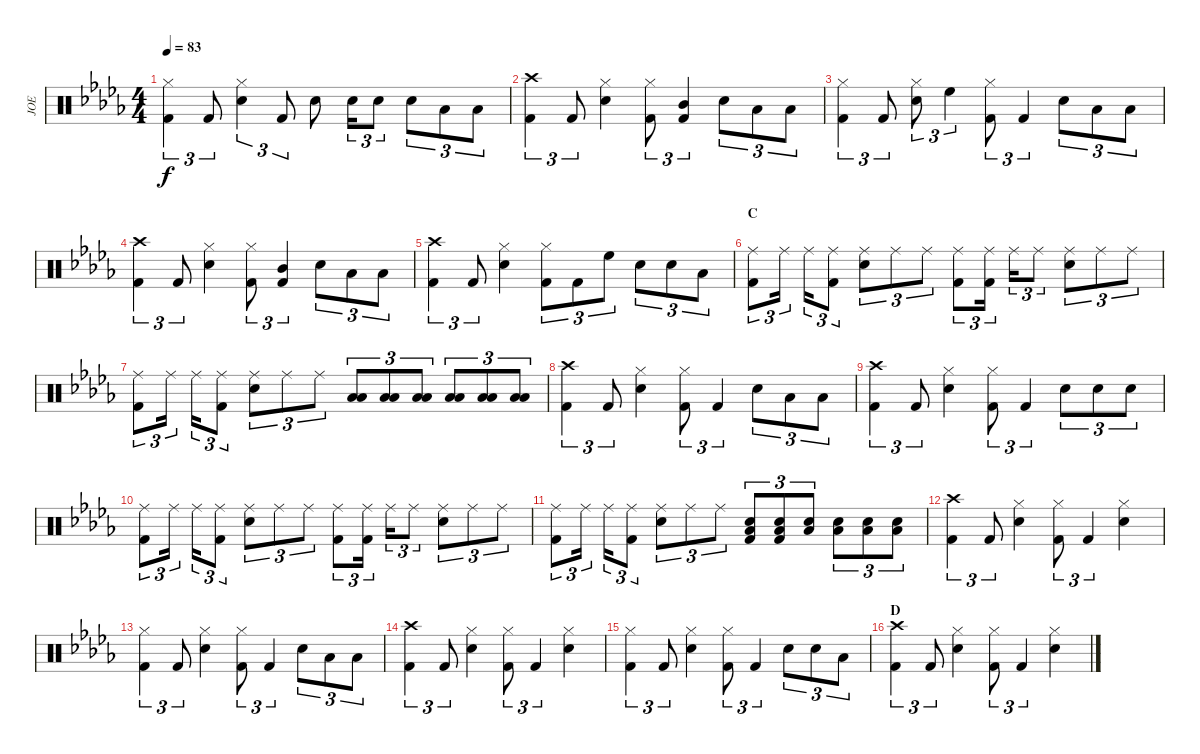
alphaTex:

\track ("JOE" "JOE") {instrument percussion}
\staff {score}
\articulation defaults
\ts (4 4)
\tempo 83
\clef neutral
\ks db
("Hi-Hat (closed)" "Kick (hit) 2").4{tu (3 2) dy f} "Kick (hit) 2".8{tu (3 2)} ("Hi-Hat (closed)" "Snare (hit) 2").4{tu (3 2)} "Kick (hit) 2".8{tu (3 2)} "Snare (hit) 2".8 "Snare (hit) 2".16{tu (3 2)} "Snare (hit) 2".8{tu (3 2)} "Snare (hit) 2".8{tu (3 2)} "Low Floor Tom (hit)".8{tu (3 2)} "Low Floor Tom (hit)".8{tu (3 2)} |
("Crash high (hit)" "Kick (hit) 2").4{tu (3 2)} "Kick (hit) 2".8{tu (3 2)} ("Hi-Hat (closed)" "Snare (hit) 2").4 ("Hi-Hat (closed)" "Kick (hit) 2").8{tu (3 2)} ("Mid Tom (hit)" "Kick (hit) 2").4{tu (3 2)} "Snare (hit) 2".8{tu (3 2)} "Low Floor Tom (hit)".8{tu (3 2)} "Low Floor Tom (hit)".8{tu (3 2)} |
("Hi-Hat (closed)" "Kick (hit) 2").4{tu (3 2)} "Kick (hit) 2".8{tu (3 2)} ("Hi-Hat (closed)" "Snare (hit) 2").8{tu (3 2)} "High Floor Tom (hit)".4{tu (3 2)} ("Hi-Hat (closed)" "Kick (hit) 2").8{tu (3 2)} "Kick (hit) 2".4{tu (3 2)} "Snare (hit) 2".8{tu (3 2)} "Low Floor Tom (hit)".8{tu (3 2)} "Low Floor Tom (hit)".8{tu (3 2)} |
("Crash high (hit)" "Kick (hit) 2").4{tu (3 2)} "Kick (hit) 2".8{tu (3 2)} ("Hi-Hat (closed)" "Snare (hit) 2").4 ("Hi-Hat (closed)" "Kick (hit) 2").8{tu (3 2)} ("Mid Tom (hit)" "Kick (hit) 2").4{tu (3 2)} "Snare (hit) 2".8{tu (3 2)} "Low Floor Tom (hit)".8{tu (3 2)} "Low Floor Tom (hit)".8{tu (3 2)} |
("Crash high (hit)" "Kick (hit) 2").4{tu (3 2)} "Kick (hit) 2".8{tu (3 2)} ("Hi-Hat (closed)" "Snare (hit) 2").4 ("Hi-Hat (closed)" "Kick (hit) 2").8{tu (3 2)} "Kick (hit) 2".8{tu (3 2)} "High Floor Tom (hit)".8{tu (3 2)} "Snare (hit) 2".8{tu (3 2)} "Snare (hit) 2".8{tu (3 2)} "Low Floor Tom (hit)".8{tu (3 2)} |
\section ("" "C")
("Ride (middle)" "Kick (hit) 2").8{tu (3 2)} "Ride (middle)".16{tu (3 2)} "Ride (middle)".16{tu (3 2)} ("Ride (middle)" "Kick (hit) 2").8{tu (3 2)} ("Ride (middle)" "Snare (hit) 2").8{tu (3 2)} "Ride (middle)".8{tu (3 2)} "Ride (middle)".8{tu (3 2)} ("Ride (middle)" "Kick (hit) 2").8{tu (3 2)} ("Ride (middle)" "Kick (hit) 2").16{tu (3 2)} "Ride (middle)".16{tu (3 2)} "Ride (middle)".8{tu (3 2)} ("Ride (middle)" "Snare (hit) 2").8{tu (3 2)} "Ride (middle)".8{tu (3 2)} "Ride (middle)".8{tu (3 2)} |
("Ride (middle)" "Kick (hit) 2").8{tu (3 2)} "Ride (middle)".16{tu (3 2)} "Ride (middle)".16{tu (3 2)} ("Ride (middle)" "Kick (hit) 2").8{tu (3 2)} ("Ride (middle)" "Snare (hit) 2").8{tu (3 2)} "Ride (middle)".8{tu (3 2)} "Ride (middle)".8{tu (3 2)} ("Low Tom (hit)" "Low Floor Tom (hit)").8{tu (3 2)} ("Low Tom (hit)" "Low Floor Tom (hit)").8{tu (3 2)} ("Low Tom (hit)" "Low Floor Tom (hit)").8{tu (3 2)} ("Low Tom (hit)" "Low Floor Tom (hit)").8{tu (3 2)} ("Low Tom (hit)" "Low Floor Tom (hit)").8{tu (3 2)} ("Low Tom (hit)" "Low Floor Tom (hit)").8{tu (3 2)} |
("Crash high (hit)" "Kick (hit) 2").4{tu (3 2)} "Kick (hit) 2".8{tu (3 2)} ("Hi-Hat (closed)" "Snare (hit) 2").4 ("Hi-Hat (closed)" "Kick (hit) 2").8{tu (3 2)} "Kick (hit) 2".4{tu (3 2)} "Snare (hit) 2".8{tu (3 2)} "Low Floor Tom (hit)".8{tu (3 2)} "Low Floor Tom (hit)".8{tu (3 2)} |
("Crash high (hit)" "Kick (hit) 2").4{tu (3 2)} "Kick (hit) 2".8{tu (3 2)} ("Hi-Hat (closed)" "Snare (hit) 2").4 ("Hi-Hat (closed)" "Kick (hit) 2").8{tu (3 2)} "Kick (hit) 2".4{tu (3 2)} "Snare (hit) 2".8{tu (3 2)} "Snare (hit) 2".8{tu (3 2)} "Snare (hit) 2".8{tu (3 2)} |
("Ride (middle)" "Kick (hit) 2").8{tu (3 2)} "Ride (middle)".16{tu (3 2)} "Ride (middle)".16{tu (3 2)} ("Ride (middle)" "Kick (hit) 2").8{tu (3 2)} ("Ride (middle)" "Snare (hit) 2").8{tu (3 2)} "Ride (middle)".8{tu (3 2)} "Ride (middle)".8{tu (3 2)} ("Ride (middle)" "Kick (hit) 2").8{tu (3 2)} ("Ride (middle)" "Kick (hit) 2").16{tu (3 2)} "Ride (middle)".16{tu (3 2)} "Ride (middle)".8{tu (3 2)} ("Ride (middle)" "Snare (hit) 2").8{tu (3 2)} "Ride (middle)".8{tu (3 2)} "Ride (middle)".8{tu (3 2)} |
("Ride (middle)" "Kick (hit) 2").8{tu (3 2)} "Ride (middle)".16{tu (3 2)} "Ride (middle)".16{tu (3 2)} ("Ride (middle)" "Kick (hit) 2").8{tu (3 2)} ("Ride (middle)" "Snare (hit) 2").8{tu (3 2)} "Ride (middle)".8{tu (3 2)} "Ride (middle)".8{tu (3 2)} ("Snare (hit) 2" "Low Floor Tom (hit)" "Kick (hit) 2").8{tu (3 2)} ("Snare (hit) 2" "Low Floor Tom (hit)" "Kick (hit) 2").8{tu (3 2)} ("Snare (hit) 2" "Low Floor Tom (hit)").8{tu (3 2)} ("Snare (hit) 2" "Low Floor Tom (hit)").8{tu (3 2)} ("Snare (hit) 2" "Low Floor Tom (hit)").8{tu (3 2)} ("Snare (hit) 2" "Low Floor Tom (hit)").8{tu (3 2)} |
("Crash high (hit)" "Kick (hit) 2").4{tu (3 2)} "Kick (hit) 2".8{tu (3 2)} ("Hi-Hat (closed)" "Snare (hit) 2").4 ("Hi-Hat (closed)" "Kick (hit) 2").8{tu (3 2)} "Kick (hit) 2".4{tu (3 2)} ("Hi-Hat (closed)" "Snare (hit) 2").4 |
("Hi-Hat (closed)" "Kick (hit) 2").4{tu (3 2)} "Kick (hit) 2".8{tu (3 2)} ("Hi-Hat (closed)" "Snare (hit) 2").4 ("Hi-Hat (closed)" "Kick (hit) 2").8{tu (3 2)} "Kick (hit) 2".4{tu (3 2)} "Snare (hit) 2".8{tu (3 2)} "Low Floor Tom (hit)".8{tu (3 2)} "Low Floor Tom (hit)".8{tu (3 2)} |
("Crash high (hit)" "Kick (hit) 2").4{tu (3 2)} "Kick (hit) 2".8{tu (3 2)} ("Hi-Hat (closed)" "Snare (hit) 2").4 ("Hi-Hat (closed)" "Kick (hit) 2").8{tu (3 2)} "Kick (hit) 2".4{tu (3 2)} ("Hi-Hat (closed)" "Snare (hit) 2").4 |
("Hi-Hat (closed)" "Kick (hit) 2").4{tu (3 2)} "Kick (hit) 2".8{tu (3 2)} ("Hi-Hat (closed)" "Snare (hit) 2").4 ("Hi-Hat (closed)" "Kick (hit) 2").8{tu (3 2)} "Kick (hit) 2".4{tu (3 2)} "Snare (hit) 2".8{tu (3 2)} "Snare (hit) 2".8{tu (3 2)} "Low Floor Tom (hit)".8{tu (3 2)} |
\section ("" "D")
("Crash high (hit)" "Kick (hit) 2").4{tu (3 2)} "Kick (hit) 2".8{tu (3 2)} ("Hi-Hat (closed)" "Snare (hit) 2").4 ("Hi-Hat (closed)" "Kick (hit) 2").8{tu (3 2)} "Kick (hit) 2".4{tu (3 2)} ("Hi-Hat (closed)" "Snare (hit) 2").4
